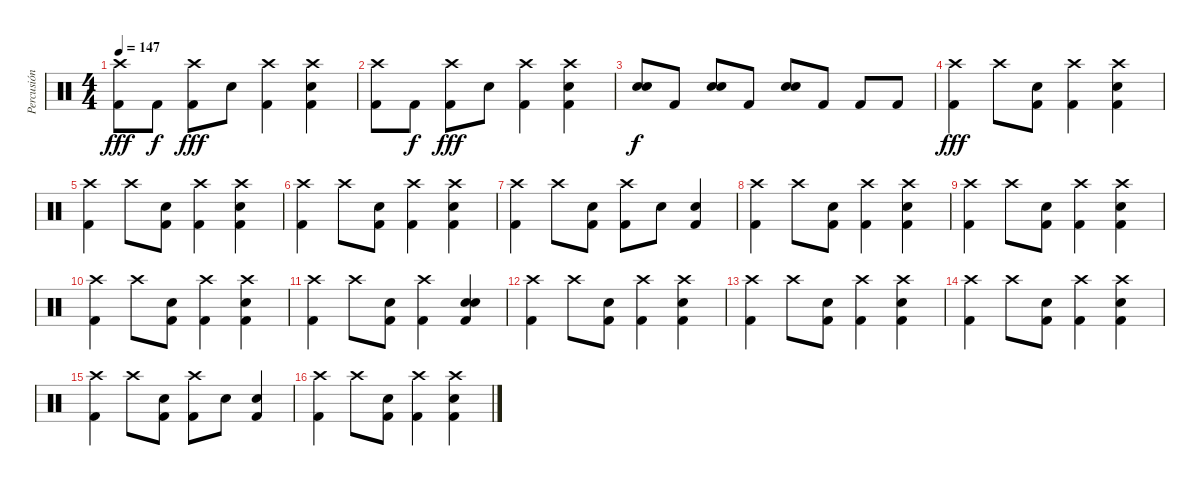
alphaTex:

\track ("Percusión" "Percusión") {instrument percussion}
\staff {score}
\articulation defaults
\ts (4 4)
\tempo 147
\clef neutral
\ks c
("Crash high (hit)" "Kick (hit) 2").8{dy fff} "Kick (hit) 2".8{dy f} ("Crash high (hit)" "Kick (hit) 2").8{dy fff} "Electric Snare (hit)".8 ("Crash high (hit)" "Kick (hit) 2").4 ("Crash high (hit)" "Electric Snare (hit)" "Kick (hit) 2").4 |
("Crash high (hit)" "Kick (hit) 2").8 "Kick (hit) 2".8{dy f} ("Crash high (hit)" "Kick (hit) 2").8{dy fff} "Electric Snare (hit)".8 ("Crash high (hit)" "Kick (hit) 2").4 ("Crash high (hit)" "Electric Snare (hit)" "Kick (hit) 2").4 |
("Electric Snare (hit)" "Electric Snare (hit)").8{bd 240 dy f} "Kick (hit) 2".8 ("Electric Snare (hit)" "Electric Snare (hit)").8{bd 240} "Kick (hit) 2".8 ("Electric Snare (hit)" "Electric Snare (hit)").8{bd 240} "Kick (hit) 2".8 "Kick (hit) 2".8 "Kick (hit) 2".8 |
("Crash high (hit)" "Kick (hit) 2").4{dy fff} "Crash high (hit)".8 ("Electric Snare (hit)" "Kick (hit) 2").8 ("Crash high (hit)" "Kick (hit) 2").4 ("Crash high (hit)" "Electric Snare (hit)" "Kick (hit) 2").4 |
("Crash high (hit)" "Kick (hit) 2").4 "Crash high (hit)".8 ("Electric Snare (hit)" "Kick (hit) 2").8 ("Crash high (hit)" "Kick (hit) 2").4 ("Crash high (hit)" "Electric Snare (hit)" "Kick (hit) 2").4 |
("Crash high (hit)" "Kick (hit) 2").4 "Crash high (hit)".8 ("Electric Snare (hit)" "Kick (hit) 2").8 ("Crash high (hit)" "Kick (hit) 2").4 ("Crash high (hit)" "Electric Snare (hit)" "Kick (hit) 2").4 |
("Crash high (hit)" "Kick (hit) 2").4 "Crash high (hit)".8 ("Electric Snare (hit)" "Kick (hit) 2").8 ("Crash high (hit)" "Kick (hit) 2").8 "Electric Snare (hit)".8 ("Electric Snare (hit)" "Kick (hit) 2").4 |
("Crash high (hit)" "Kick (hit) 2").4 "Crash high (hit)".8 ("Electric Snare (hit)" "Kick (hit) 2").8 ("Crash high (hit)" "Kick (hit) 2").4 ("Crash high (hit)" "Electric Snare (hit)" "Kick (hit) 2").4 |
("Crash high (hit)" "Kick (hit) 2").4 "Crash high (hit)".8 ("Electric Snare (hit)" "Kick (hit) 2").8 ("Crash high (hit)" "Kick (hit) 2").4 ("Crash high (hit)" "Electric Snare (hit)" "Kick (hit) 2").4 |
("Crash high (hit)" "Kick (hit) 2").4 "Crash high (hit)".8 ("Electric Snare (hit)" "Kick (hit) 2").8 ("Crash high (hit)" "Kick (hit) 2").4 ("Crash high (hit)" "Electric Snare (hit)" "Kick (hit) 2").4 |
("Crash high (hit)" "Kick (hit) 2").4 "Crash high (hit)".8 ("Electric Snare (hit)" "Kick (hit) 2").8 ("Crash high (hit)" "Kick (hit) 2").4 ("Electric Snare (hit)" "Electric Snare (hit)" "Kick (hit) 2").4{bd 240} |
("Crash high (hit)" "Kick (hit) 2").4 "Crash high (hit)".8 ("Electric Snare (hit)" "Kick (hit) 2").8 ("Crash high (hit)" "Kick (hit) 2").4 ("Crash high (hit)" "Electric Snare (hit)" "Kick (hit) 2").4 |
("Crash high (hit)" "Kick (hit) 2").4 "Crash high (hit)".8 ("Electric Snare (hit)" "Kick (hit) 2").8 ("Crash high (hit)" "Kick (hit) 2").4 ("Crash high (hit)" "Electric Snare (hit)" "Kick (hit) 2").4 |
("Crash high (hit)" "Kick (hit) 2").4 "Crash high (hit)".8 ("Electric Snare (hit)" "Kick (hit) 2").8 ("Crash high (hit)" "Kick (hit) 2").4 ("Crash high (hit)" "Electric Snare (hit)" "Kick (hit) 2").4 |
("Crash high (hit)" "Kick (hit) 2").4 "Crash high (hit)".8 ("Electric Snare (hit)" "Kick (hit) 2").8 ("Crash high (hit)" "Kick (hit) 2").8 "Electric Snare (hit)".8 ("Electric Snare (hit)" "Kick (hit) 2").4 |
("Crash high (hit)" "Kick (hit) 2").4 "Crash high (hit)".8 ("Electric Snare (hit)" "Kick (hit) 2").8 ("Crash high (hit)" "Kick (hit) 2").4 ("Crash high (hit)" "Electric Snare (hit)" "Kick (hit) 2").4
